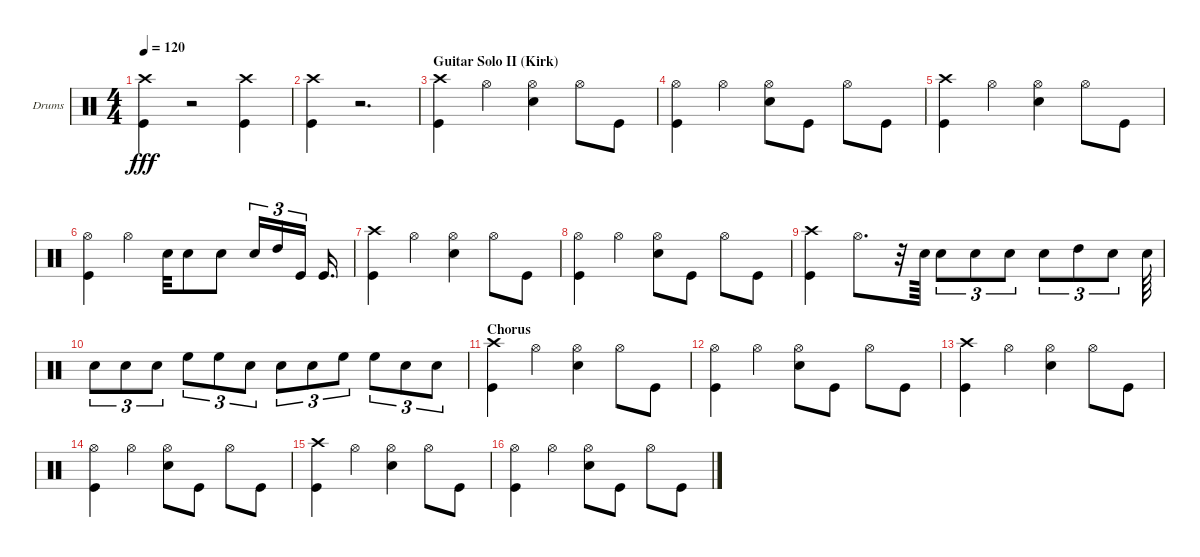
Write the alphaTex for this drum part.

\bracketExtendMode groupsimilarinstruments
\firstSystemTrackNameOrientation horizontal
\otherSystemsTrackNameOrientation horizontal
\track ("Drumkit" "Drums") {instrument percussion}
\staff {score}
\articulation defaults
\ts (4 4)
\tempo 120
\clef neutral
\ks c
("Kick (hit)" "Crash high (hit)").4{dy fff} r.2 ("Crash high (hit)" "Kick (hit)").4 |
("Kick (hit)" "Crash high (hit)").4 r.2{d} |
\section ("" "Guitar Solo II (Kirk)")
("Kick (hit)" "Crash high (hit)").4 "Hi-Hat (open)".4 ("Snare (hit) 2" "Hi-Hat (open)").4 "Hi-Hat (open)".8 "Kick (hit)".8 |
("Kick (hit)" "Hi-Hat (open)").4 "Hi-Hat (open)".4 ("Snare (hit) 2" "Hi-Hat (open)").8 "Kick (hit)".8 "Hi-Hat (open)".8 "Kick (hit)".8 |
("Kick (hit)" "Crash high (hit)").4 "Hi-Hat (open)".4 ("Snare (hit) 2" "Hi-Hat (open)").4 "Hi-Hat (open)".8 "Kick (hit)".8 |
("Hi-Hat (open)" "Kick (hit)").4 "Hi-Hat (open)".4 "Snare (hit) 2".32 "Snare (hit) 2".8 "Snare (hit) 2".8 "Snare (hit) 2".16{tu (3 2)} "High Tom (hit)".16{tu (3 2)} "Kick (hit)".16{tu (3 2)} "Kick (hit)".16{d} |
("Kick (hit)" "Crash high (hit)").4 "Hi-Hat (open)".4 ("Snare (hit) 2" "Hi-Hat (open)").4 "Hi-Hat (open)".8 "Kick (hit)".8 |
("Kick (hit)" "Hi-Hat (open)").4 "Hi-Hat (open)".4 ("Snare (hit) 2" "Hi-Hat (open)").8 "Kick (hit)".8 "Hi-Hat (open)".8 "Kick (hit)".8 |
("Kick (hit)" "Crash high (hit)").4 "Hi-Hat (open)".8{d} r.32 "Snare (hit) 2".64 "Snare (hit) 2".8{tu (3 2)} "Snare (hit) 2".8{tu (3 2)} "Snare (hit) 2".8{tu (3 2)} "Snare (hit) 2".8{tu (3 2)} "High Tom (hit)".8{tu (3 2)} "Snare (hit) 2".8{tu (3 2)} "Snare (hit) 2".64 |
"Snare (hit) 2".8{tu (3 2)} "Snare (hit) 2".8{tu (3 2)} "Snare (hit) 2".8{tu (3 2)} "High Floor Tom (hit)".8{tu (3 2)} "High Floor Tom (hit)".8{tu (3 2)} "Snare (hit) 2".8{tu (3 2)} "Snare (hit) 2".8{tu (3 2)} "Snare (hit) 2".8{tu (3 2)} "High Floor Tom (hit)".8{tu (3 2)} "High Floor Tom (hit)".8{tu (3 2)} "Snare (hit) 2".8{tu (3 2)} "Snare (hit) 2".8{tu (3 2)} |
\section ("" "Chorus")
("Kick (hit)" "Crash high (hit)").4 "Hi-Hat (open)".4 ("Snare (hit) 2" "Hi-Hat (open)").4 "Hi-Hat (open)".8 "Kick (hit)".8 |
("Hi-Hat (open)" "Kick (hit)").4 "Hi-Hat (open)".4 ("Snare (hit) 2" "Hi-Hat (open)").8 "Kick (hit)".8 "Hi-Hat (open)".8 "Kick (hit)".8 |
("Kick (hit)" "Crash high (hit)").4 "Hi-Hat (open)".4 ("Snare (hit) 2" "Hi-Hat (open)").4 "Hi-Hat (open)".8 "Kick (hit)".8 |
("Hi-Hat (open)" "Kick (hit)").4 "Hi-Hat (open)".4 ("Snare (hit) 2" "Hi-Hat (open)").8 "Kick (hit)".8 "Hi-Hat (open)".8 "Kick (hit)".8 |
("Kick (hit)" "Crash high (hit)").4 "Hi-Hat (open)".4 ("Snare (hit) 2" "Hi-Hat (open)").4 "Hi-Hat (open)".8 "Kick (hit)".8 |
("Hi-Hat (open)" "Kick (hit)").4 "Hi-Hat (open)".4 ("Snare (hit) 2" "Hi-Hat (open)").8 "Kick (hit)".8 "Hi-Hat (open)".8 "Kick (hit)".8
